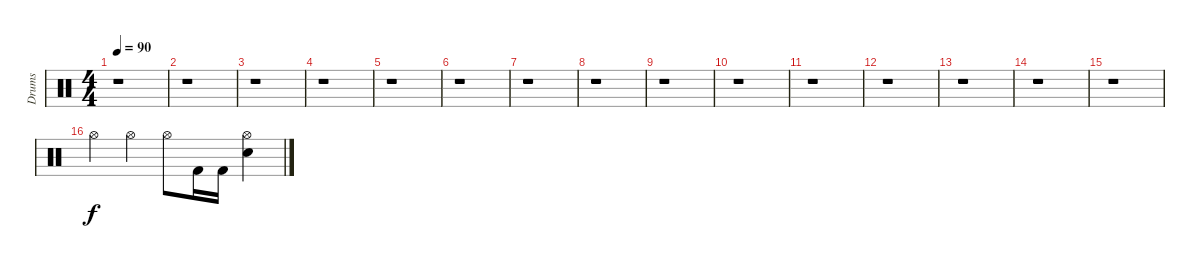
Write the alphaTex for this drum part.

\track ("Drums" "Drums") {instrument percussion}
\staff {score}
\articulation defaults
\ts (4 4)
\tempo 90
\clef neutral
\ks c
r.1{dy f} |
r.1 |
r.1 |
r.1 |
r.1 |
r.1 |
r.1 |
r.1 |
r.1 |
r.1 |
r.1 |
r.1 |
r.1 |
r.1 |
r.1 |
"Hi-Hat (open)".4 "Hi-Hat (open)".4 "Hi-Hat (open)".8 "Kick (hit) 2".16 "Kick (hit) 2".16 ("Electric Snare (hit)" "Hi-Hat (open)").4
